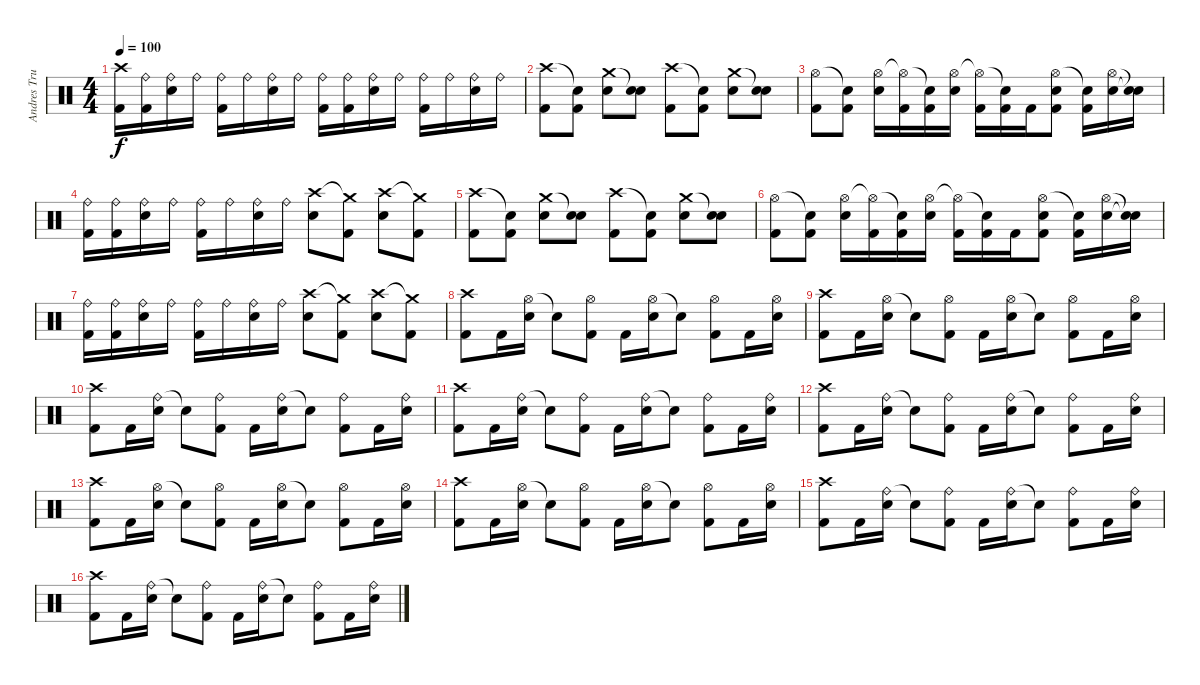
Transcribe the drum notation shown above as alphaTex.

\track ("Andres Trujillo" "Andres Tru") {instrument percussion}
\staff {score}
\articulation defaults
\ts (4 4)
\tempo 100
\clef neutral
\ks c
("Crash high (hit)" "Kick (hit) 2").16{dy f} ("Ride (bell)" "Kick (hit) 2").16 ("Ride (bell)" "Electric Snare (hit)").16 "Ride (bell)".16 ("Ride (bell)" "Kick (hit) 2").16 "Ride (bell)".16 ("Ride (bell)" "Electric Snare (hit)").16 "Ride (bell)".16 ("Ride (bell)" "Kick (hit) 2").16 ("Ride (bell)" "Kick (hit) 2").16 ("Ride (bell)" "Electric Snare (hit)").16 "Ride (bell)".16 ("Ride (bell)" "Kick (hit) 2").16 "Ride (bell)".16 ("Ride (bell)" "Electric Snare (hit)").16 "Ride (bell)".16 |
("Crash high (hit)" "Kick (hit) 2").8 ("Snare (hit)"{t} "Kick (hit) 2").8 ("Crash medium (hit)" "Electric Snare (hit)").8 ("Snare (hit)"{t} "Electric Snare (hit)").8 ("Crash high (hit)" "Kick (hit) 2").8 ("Snare (hit)"{t} "Kick (hit) 2").8 ("Crash medium (hit)" "Electric Snare (hit)").8 ("Snare (hit)"{t} "Electric Snare (hit)").8 |
("Hi-Hat (open)" "Kick (hit) 2").8 ("Snare (hit)"{t} "Kick (hit) 2").8 ("Hi-Hat (open)" "Electric Snare (hit)").16 ("Hi-Hat (open)"{t} "Kick (hit) 2").16 ("Snare (hit)"{t} "Kick (hit) 2").16 ("Hi-Hat (open)" "Electric Snare (hit)").16 ("Hi-Hat (open)"{t} "Kick (hit) 2").16 ("Snare (hit)"{t} "Kick (hit) 2").16 "Kick (hit) 2".16 ("Hi-Hat (open)" "Electric Snare (hit)" "Kick (hit) 2").8 ("Snare (hit)"{t} "Kick (hit) 2").16 ("Hi-Hat (open)" "Electric Snare (hit)").16 ("Snare (hit)"{t} "Snare (hit)"{t}).16 |
("Ride (bell)" "Kick (hit) 2").16 ("Ride (bell)" "Kick (hit) 2").16 ("Ride (bell)" "Electric Snare (hit)").16 "Ride (bell)".16 ("Ride (bell)" "Kick (hit) 2").16 "Ride (bell)".16 ("Ride (bell)" "Electric Snare (hit)").16 "Ride (bell)".16 ("Crash high (hit)" "Electric Snare (hit)").8 ("Crash medium (hit)"{t} "Kick (hit) 2").8 ("Crash high (hit)" "Electric Snare (hit)").8 ("Crash medium (hit)"{t} "Kick (hit) 2").8 |
("Crash high (hit)" "Kick (hit) 2").8 ("Snare (hit)"{t} "Kick (hit) 2").8 ("Crash medium (hit)" "Electric Snare (hit)").8 ("Snare (hit)"{t} "Electric Snare (hit)").8 ("Crash high (hit)" "Kick (hit) 2").8 ("Snare (hit)"{t} "Kick (hit) 2").8 ("Crash medium (hit)" "Electric Snare (hit)").8 ("Snare (hit)"{t} "Electric Snare (hit)").8 |
("Hi-Hat (open)" "Kick (hit) 2").8 ("Snare (hit)"{t} "Kick (hit) 2").8 ("Hi-Hat (open)" "Electric Snare (hit)").16 ("Hi-Hat (open)"{t} "Kick (hit) 2").16 ("Snare (hit)"{t} "Kick (hit) 2").16 ("Hi-Hat (open)" "Electric Snare (hit)").16 ("Hi-Hat (open)"{t} "Kick (hit) 2").16 ("Snare (hit)"{t} "Kick (hit) 2").16 "Kick (hit) 2".16 ("Hi-Hat (open)" "Electric Snare (hit)" "Kick (hit) 2").8 ("Snare (hit)"{t} "Kick (hit) 2").16 ("Hi-Hat (open)" "Electric Snare (hit)").16 ("Snare (hit)"{t} "Snare (hit)"{t}).16 |
("Ride (bell)" "Kick (hit) 2").16 ("Ride (bell)" "Kick (hit) 2").16 ("Ride (bell)" "Electric Snare (hit)").16 "Ride (bell)".16 ("Ride (bell)" "Kick (hit) 2").16 "Ride (bell)".16 ("Ride (bell)" "Electric Snare (hit)").16 "Ride (bell)".16 ("Crash high (hit)" "Electric Snare (hit)").8 ("Crash medium (hit)"{t} "Kick (hit) 2").8 ("Crash high (hit)" "Electric Snare (hit)").8 ("Crash medium (hit)"{t} "Kick (hit) 2").8 |
("Crash high (hit)" "Kick (hit) 2").8 "Kick (hit) 2".16 ("Hi-Hat (open)" "Electric Snare (hit)").16 "Snare (hit)"{t}.8 ("Hi-Hat (open)" "Kick (hit) 2").8 "Kick (hit) 2".16 ("Hi-Hat (open)" "Electric Snare (hit)").16 "Snare (hit)"{t}.8 ("Hi-Hat (open)" "Kick (hit) 2").8 "Kick (hit) 2".16 ("Hi-Hat (open)" "Electric Snare (hit)").16 |
("Crash high (hit)" "Kick (hit) 2").8 "Kick (hit) 2".16 ("Hi-Hat (open)" "Electric Snare (hit)").16 "Snare (hit)"{t}.8 ("Hi-Hat (open)" "Kick (hit) 2").8 "Kick (hit) 2".16 ("Hi-Hat (open)" "Electric Snare (hit)").16 "Snare (hit)"{t}.8 ("Hi-Hat (open)" "Kick (hit) 2").8 "Kick (hit) 2".16 ("Hi-Hat (open)" "Electric Snare (hit)").16 |
("Crash high (hit)" "Kick (hit) 2").8 "Kick (hit) 2".16 ("Ride (bell)" "Electric Snare (hit)").16 "Snare (hit)"{t}.8 ("Ride (bell)" "Kick (hit) 2").8 "Kick (hit) 2".16 ("Ride (bell)" "Electric Snare (hit)").16 "Snare (hit)"{t}.8 ("Ride (bell)" "Kick (hit) 2").8 "Kick (hit) 2".16 ("Ride (bell)" "Electric Snare (hit)").16 |
("Crash high (hit)" "Kick (hit) 2").8 "Kick (hit) 2".16 ("Ride (bell)" "Electric Snare (hit)").16 "Snare (hit)"{t}.8 ("Ride (bell)" "Kick (hit) 2").8 "Kick (hit) 2".16 ("Ride (bell)" "Electric Snare (hit)").16 "Snare (hit)"{t}.8 ("Ride (bell)" "Kick (hit) 2").8 "Kick (hit) 2".16 ("Ride (bell)" "Electric Snare (hit)").16 |
("Crash high (hit)" "Kick (hit) 2").8 "Kick (hit) 2".16 ("Ride (bell)" "Electric Snare (hit)").16 "Snare (hit)"{t}.8 ("Ride (bell)" "Kick (hit) 2").8 "Kick (hit) 2".16 ("Ride (bell)" "Electric Snare (hit)").16 "Snare (hit)"{t}.8 ("Ride (bell)" "Kick (hit) 2").8 "Kick (hit) 2".16 ("Ride (bell)" "Electric Snare (hit)").16 |
("Crash high (hit)" "Kick (hit) 2").8 "Kick (hit) 2".16 ("Hi-Hat (open)" "Electric Snare (hit)").16 "Snare (hit)"{t}.8 ("Hi-Hat (open)" "Kick (hit) 2").8 "Kick (hit) 2".16 ("Hi-Hat (open)" "Electric Snare (hit)").16 "Snare (hit)"{t}.8 ("Hi-Hat (open)" "Kick (hit) 2").8 "Kick (hit) 2".16 ("Hi-Hat (open)" "Electric Snare (hit)").16 |
("Crash high (hit)" "Kick (hit) 2").8 "Kick (hit) 2".16 ("Hi-Hat (open)" "Electric Snare (hit)").16 "Snare (hit)"{t}.8 ("Hi-Hat (open)" "Kick (hit) 2").8 "Kick (hit) 2".16 ("Hi-Hat (open)" "Electric Snare (hit)").16 "Snare (hit)"{t}.8 ("Hi-Hat (open)" "Kick (hit) 2").8 "Kick (hit) 2".16 ("Hi-Hat (open)" "Electric Snare (hit)").16 |
("Crash high (hit)" "Kick (hit) 2").8 "Kick (hit) 2".16 ("Ride (bell)" "Electric Snare (hit)").16 "Snare (hit)"{t}.8 ("Ride (bell)" "Kick (hit) 2").8 "Kick (hit) 2".16 ("Ride (bell)" "Electric Snare (hit)").16 "Snare (hit)"{t}.8 ("Ride (bell)" "Kick (hit) 2").8 "Kick (hit) 2".16 ("Ride (bell)" "Electric Snare (hit)").16 |
("Crash high (hit)" "Kick (hit) 2").8 "Kick (hit) 2".16 ("Ride (bell)" "Electric Snare (hit)").16 "Snare (hit)"{t}.8 ("Ride (bell)" "Kick (hit) 2").8 "Kick (hit) 2".16 ("Ride (bell)" "Electric Snare (hit)").16 "Snare (hit)"{t}.8 ("Ride (bell)" "Kick (hit) 2").8 "Kick (hit) 2".16 ("Ride (bell)" "Electric Snare (hit)").16
